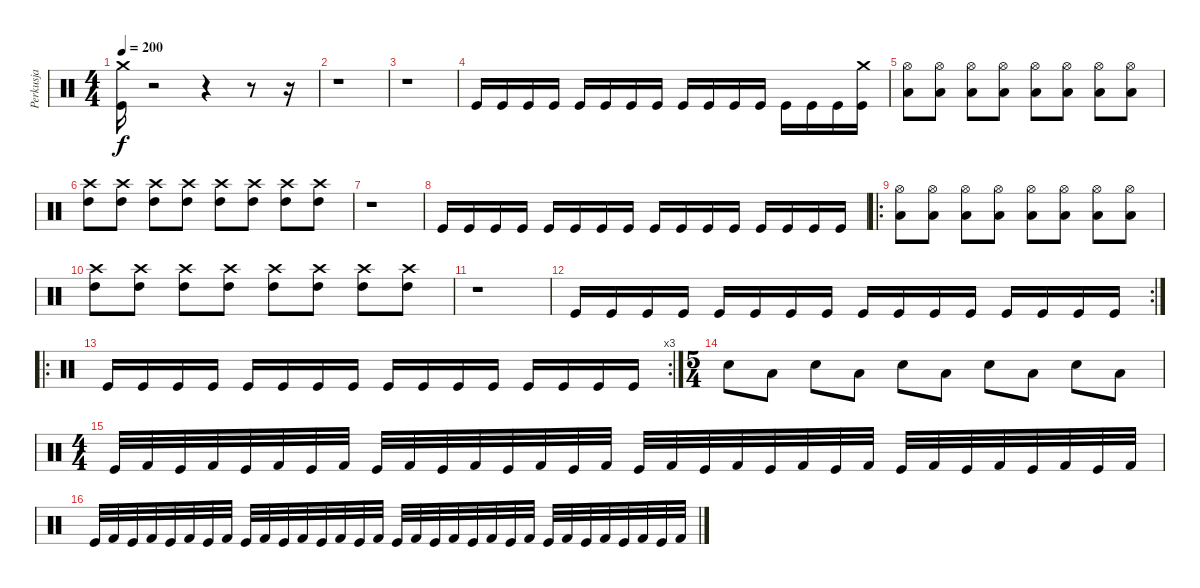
\track ("Perkusja" "Perkusja") {instrument percussion}
\staff {score}
\articulation defaults
\ts (4 4)
\tempo 200
\clef neutral
\ks c
("Crash medium (hit)" "Kick (hit)").16{dy f} r.2 r.4 r.8 r.16 |
r.1 |
r.1 |
"Kick (hit)".16 "Kick (hit)".16 "Kick (hit)".16 "Kick (hit)".16 "Kick (hit)".16 "Kick (hit)".16 "Kick (hit)".16 "Kick (hit)".16 "Kick (hit)".16 "Kick (hit)".16 "Kick (hit)".16 "Kick (hit)".16 "Kick (hit)".16 "Kick (hit)".16 "Kick (hit)".16 ("Crash medium (hit)" "Kick (hit)").16 |
("Hi-Hat (open)" "Low Tom (hit)").8 ("Hi-Hat (open)" "Low Tom (hit)").8 ("Hi-Hat (open)" "Low Tom (hit)").8 ("Hi-Hat (open)" "Low Tom (hit)").8 ("Hi-Hat (open)" "Low Tom (hit)").8 ("Hi-Hat (open)" "Low Tom (hit)").8 ("Hi-Hat (open)" "Low Tom (hit)").8 ("Hi-Hat (open)" "Low Tom (hit)").8 |
("Crash high (hit)" "High Tom (hit)").8 ("Crash high (hit)" "High Tom (hit)").8 ("Crash high (hit)" "High Tom (hit)").8 ("Crash high (hit)" "High Tom (hit)").8 ("Crash high (hit)" "High Tom (hit)").8 ("Crash high (hit)" "High Tom (hit)").8 ("Crash high (hit)" "High Tom (hit)").8 ("Crash high (hit)" "High Tom (hit)").8 |
r.1 |
"Kick (hit)".16 "Kick (hit)".16 "Kick (hit)".16 "Kick (hit)".16 "Kick (hit)".16 "Kick (hit)".16 "Kick (hit)".16 "Kick (hit)".16 "Kick (hit)".16 "Kick (hit)".16 "Kick (hit)".16 "Kick (hit)".16 "Kick (hit)".16 "Kick (hit)".16 "Kick (hit)".16 "Kick (hit)".16 |
\ro
("Hi-Hat (open)" "Low Tom (hit)").8 ("Hi-Hat (open)" "Low Tom (hit)").8 ("Hi-Hat (open)" "Low Tom (hit)").8 ("Hi-Hat (open)" "Low Tom (hit)").8 ("Hi-Hat (open)" "Low Tom (hit)").8 ("Hi-Hat (open)" "Low Tom (hit)").8 ("Hi-Hat (open)" "Low Tom (hit)").8 ("Hi-Hat (open)" "Low Tom (hit)").8 |
("Crash high (hit)" "High Tom (hit)").8 ("Crash high (hit)" "High Tom (hit)").8 ("Crash high (hit)" "High Tom (hit)").8 ("Crash high (hit)" "High Tom (hit)").8 ("Crash high (hit)" "High Tom (hit)").8 ("Crash high (hit)" "High Tom (hit)").8 ("Crash high (hit)" "High Tom (hit)").8 ("Crash high (hit)" "High Tom (hit)").8 |
r.1 |
\rc 2 "Kick (hit)".16 "Kick (hit)".16 "Kick (hit)".16 "Kick (hit)".16 "Kick (hit)".16 "Kick (hit)".16 "Kick (hit)".16 "Kick (hit)".16 "Kick (hit)".16 "Kick (hit)".16 "Kick (hit)".16 "Kick (hit)".16 "Kick (hit)".16 "Kick (hit)".16 "Kick (hit)".16 "Kick (hit)".16
|
\ro
\rc 3 "Kick (hit)".16 "Kick (hit)".16 "Kick (hit)".16 "Kick (hit)".16 "Kick (hit)".16 "Kick (hit)".16 "Kick (hit)".16 "Kick (hit)".16 "Kick (hit)".16 "Kick (hit)".16 "Kick (hit)".16 "Kick (hit)".16 "Kick (hit)".16 "Kick (hit)".16 "Kick (hit)".16 "Kick (hit)".16
|
\ts (5 4)
"Electric Snare (hit)".8 "Low Tom (hit)".8 "Electric Snare (hit)".8 "Low Tom (hit)".8 "Electric Snare (hit)".8 "Low Tom (hit)".8 "Electric Snare (hit)".8 "Low Tom (hit)".8 "Electric Snare (hit)".8 "Low Tom (hit)".8 |
\ts (4 4)
"Kick (hit)".32 "Kick (hit) 2".32 "Kick (hit)".32 "Kick (hit) 2".32 "Kick (hit)".32 "Kick (hit) 2".32 "Kick (hit)".32 "Kick (hit) 2".32 "Kick (hit)".32 "Kick (hit) 2".32 "Kick (hit)".32 "Kick (hit) 2".32 "Kick (hit)".32 "Kick (hit) 2".32 "Kick (hit)".32 "Kick (hit) 2".32 "Kick (hit)".32 "Kick (hit) 2".32 "Kick (hit)".32 "Kick (hit) 2".32 "Kick (hit)".32 "Kick (hit) 2".32 "Kick (hit)".32 "Kick (hit) 2".32 "Kick (hit)".32 "Kick (hit) 2".32 "Kick (hit)".32 "Kick (hit) 2".32 "Kick (hit)".32 "Kick (hit) 2".32 "Kick (hit)".32 "Kick (hit) 2".32 |
"Kick (hit)".32 "Kick (hit) 2".32 "Kick (hit)".32 "Kick (hit) 2".32 "Kick (hit)".32 "Kick (hit) 2".32 "Kick (hit)".32 "Kick (hit) 2".32 "Kick (hit)".32 "Kick (hit) 2".32 "Kick (hit)".32 "Kick (hit) 2".32 "Kick (hit)".32 "Kick (hit) 2".32 "Kick (hit)".32 "Kick (hit) 2".32 "Kick (hit)".32 "Kick (hit) 2".32 "Kick (hit)".32 "Kick (hit) 2".32 "Kick (hit)".32 "Kick (hit) 2".32 "Kick (hit)".32 "Kick (hit) 2".32 "Kick (hit)".32 "Kick (hit) 2".32 "Kick (hit)".32 "Kick (hit) 2".32 "Kick (hit)".32 "Kick (hit) 2".32 "Kick (hit)".32 "Kick (hit) 2".32
